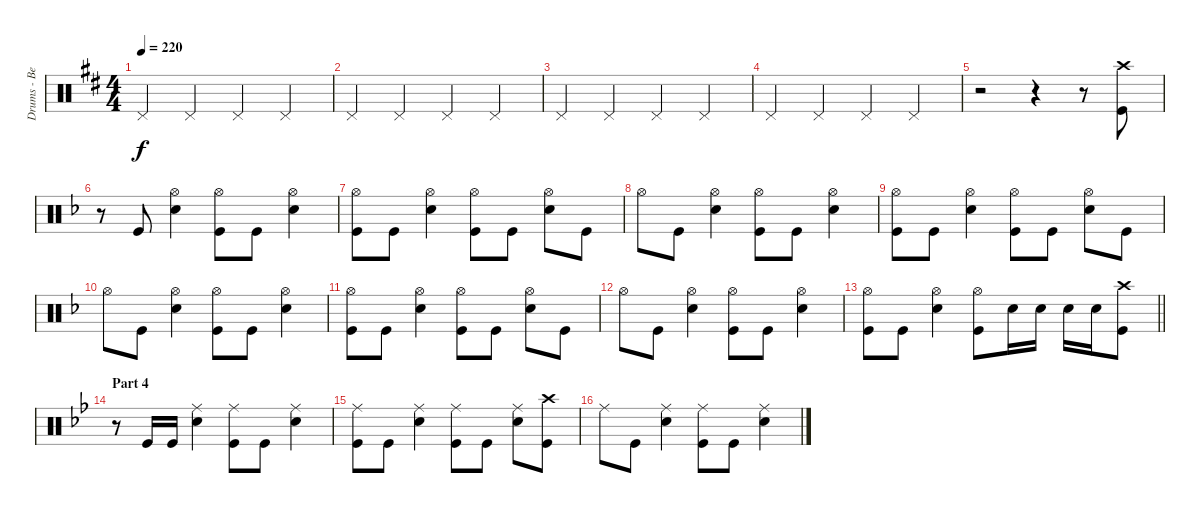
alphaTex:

\track ("Drums - Ben Johnston" "Drums - Be") {instrument percussion}
\staff {score}
\articulation defaults
\ts (4 4)
\tempo 220
\clef neutral
\ks d "Pedal Hi-Hat (hit)".4{dy f} "Pedal Hi-Hat (hit)".4 "Pedal Hi-Hat (hit)".4 "Pedal Hi-Hat (hit)".4
|
"Pedal Hi-Hat (hit)".4 "Pedal Hi-Hat (hit)".4 "Pedal Hi-Hat (hit)".4 "Pedal Hi-Hat (hit)".4 |
"Pedal Hi-Hat (hit)".4 "Pedal Hi-Hat (hit)".4 "Pedal Hi-Hat (hit)".4 "Pedal Hi-Hat (hit)".4 |
"Pedal Hi-Hat (hit)".4 "Pedal Hi-Hat (hit)".4 "Pedal Hi-Hat (hit)".4 "Pedal Hi-Hat (hit)".4 |
r.2 r.4 r.8 ("Crash high (hit)" "Kick (hit)").8 |
\ks dminor
r.8 "Kick (hit)".8 ("Hi-Hat (open)" "Snare (hit) 2").4 ("Hi-Hat (open)" "Kick (hit)").8 "Kick (hit)".8 ("Hi-Hat (open)" "Snare (hit) 2").4 |
("Hi-Hat (open)" "Kick (hit)").8 "Kick (hit)".8 ("Hi-Hat (open)" "Snare (hit) 2").4 ("Hi-Hat (open)" "Kick (hit)").8 "Kick (hit)".8 ("Hi-Hat (open)" "Snare (hit) 2").8 "Kick (hit)".8 |
"Hi-Hat (open)".8 "Kick (hit)".8 ("Hi-Hat (open)" "Snare (hit) 2").4 ("Hi-Hat (open)" "Kick (hit)").8 "Kick (hit)".8 ("Hi-Hat (open)" "Snare (hit) 2").4 |
("Hi-Hat (open)" "Kick (hit)").8 "Kick (hit)".8 ("Hi-Hat (open)" "Snare (hit) 2").4 ("Hi-Hat (open)" "Kick (hit)").8 "Kick (hit)".8 ("Hi-Hat (open)" "Snare (hit) 2").8 "Kick (hit)".8 |
"Hi-Hat (open)".8 "Kick (hit)".8 ("Hi-Hat (open)" "Snare (hit) 2").4 ("Hi-Hat (open)" "Kick (hit)").8 "Kick (hit)".8 ("Hi-Hat (open)" "Snare (hit) 2").4 |
("Hi-Hat (open)" "Kick (hit)").8 "Kick (hit)".8 ("Hi-Hat (open)" "Snare (hit) 2").4 ("Hi-Hat (open)" "Kick (hit)").8 "Kick (hit)".8 ("Hi-Hat (open)" "Snare (hit) 2").8 "Kick (hit)".8 |
"Hi-Hat (open)".8 "Kick (hit)".8 ("Hi-Hat (open)" "Snare (hit) 2").4 ("Hi-Hat (open)" "Kick (hit)").8 "Kick (hit)".8 ("Hi-Hat (open)" "Snare (hit) 2").4 |
\barLineRight lightlight
("Hi-Hat (open)" "Kick (hit)").8 "Kick (hit)".8 ("Hi-Hat (open)" "Snare (hit) 2").4 ("Hi-Hat (open)" "Kick (hit)").8 "Snare (hit) 2".16 "Snare (hit) 2".16 "Snare (hit) 2".16 "Snare (hit) 2".16 ("Crash high (hit)" "Kick (hit)").8 |
\section ("" "Part 4")
\ks gminor
r.8 "Kick (hit)".16 "Kick (hit)".16 ("Ride (middle)" "Snare (hit) 2").4 ("Ride (middle)" "Kick (hit)").8 "Kick (hit)".8 ("Ride (middle)" "Snare (hit) 2").4 |
("Ride (middle)" "Kick (hit)").8 "Kick (hit)".8 ("Ride (middle)" "Snare (hit) 2").4 ("Ride (middle)" "Kick (hit)").8 "Kick (hit)".8 ("Ride (middle)" "Snare (hit) 2").8 ("Crash high (hit)" "Kick (hit)").8 |
"Ride (middle)".8 "Kick (hit)".8 ("Ride (middle)" "Snare (hit) 2").4 ("Ride (middle)" "Kick (hit)").8 "Kick (hit)".8 ("Ride (middle)" "Snare (hit) 2").4
